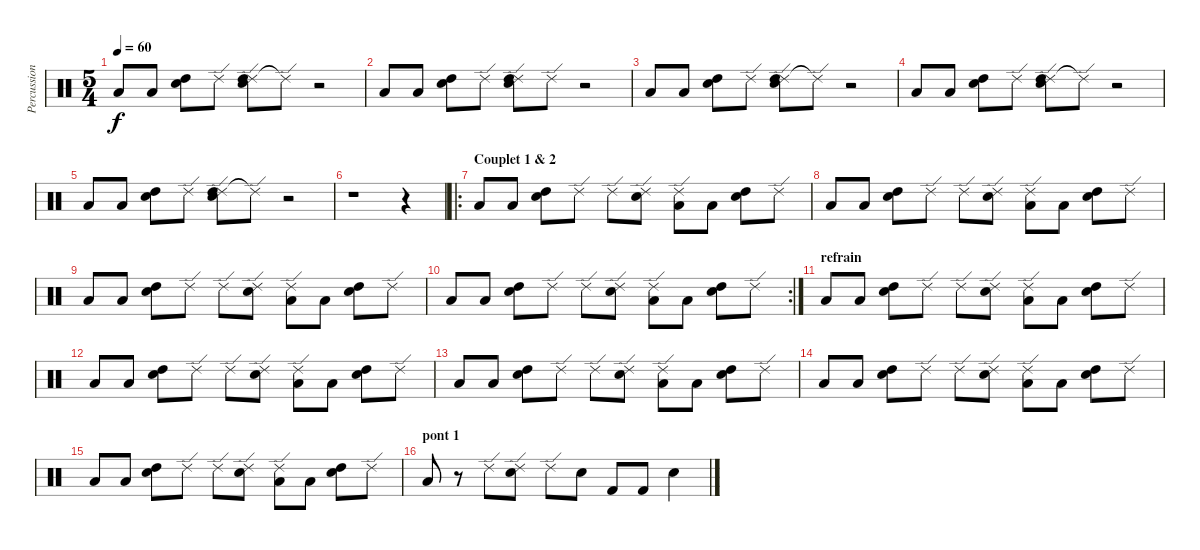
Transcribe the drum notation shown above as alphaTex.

\track ("Percussions" "Percussion") {instrument percussion}
\staff {score}
\articulation defaults
\ts (5 4)
\tempo 60
\clef neutral
\ks c "Low Floor Tom (hit)".8{dy f} "Low Floor Tom (hit)".8
("Electric Snare (hit)" "High Tom (hit)").8 "Ride (edge) 2".8 ("Ride (edge) 2" "Electric Snare (hit)" "High Tom (hit)").8 "Ride (edge) 2"{t}.8 r.2 |
"Low Floor Tom (hit)".8 "Low Floor Tom (hit)".8 ("Electric Snare (hit)" "High Tom (hit)").8 "Ride (edge) 2".8 ("Ride (edge) 2" "Electric Snare (hit)" "High Tom (hit)").8 "Ride (edge) 2".8 r.2 |
"Low Floor Tom (hit)".8 "Low Floor Tom (hit)".8 ("Electric Snare (hit)" "High Tom (hit)").8 "Ride (edge) 2".8 ("Ride (edge) 2" "Electric Snare (hit)" "High Tom (hit)").8 "Ride (edge) 2"{t}.8 r.2 |
"Low Floor Tom (hit)".8 "Low Floor Tom (hit)".8 ("Electric Snare (hit)" "High Tom (hit)").8 "Ride (edge) 2".8 ("Ride (edge) 2" "Electric Snare (hit)" "High Tom (hit)").8 "Ride (edge) 2"{t}.8 r.2 |
"Low Floor Tom (hit)".8 "Low Floor Tom (hit)".8 ("Electric Snare (hit)" "High Tom (hit)").8 "Ride (edge) 2".8 ("Ride (edge) 2" "Electric Snare (hit)" "High Tom (hit)").8 "Ride (edge) 2"{t}.8 r.2 |
r.1 r.4 |
\ro
\section ("" "Couplet 1 & 2")
"Low Floor Tom (hit)".8 "Low Floor Tom (hit)".8 ("Electric Snare (hit)" "High Tom (hit)").8 "Ride (edge) 2".8 "Ride (edge) 2".8 ("Ride (edge) 2" "Electric Snare (hit)").8 ("Ride (edge) 2" "Low Floor Tom (hit)").8 "Low Floor Tom (hit)".8 ("Electric Snare (hit)" "High Tom (hit)").8 "Ride (edge) 2".8 |
"Low Floor Tom (hit)".8 "Low Floor Tom (hit)".8 ("Electric Snare (hit)" "High Tom (hit)").8 "Ride (edge) 2".8 "Ride (edge) 2".8 ("Ride (edge) 2" "Electric Snare (hit)").8 ("Ride (edge) 2" "Low Floor Tom (hit)").8 "Low Floor Tom (hit)".8 ("Electric Snare (hit)" "High Tom (hit)").8 "Ride (edge) 2".8 |
"Low Floor Tom (hit)".8 "Low Floor Tom (hit)".8 ("Electric Snare (hit)" "High Tom (hit)").8 "Ride (edge) 2".8 "Ride (edge) 2".8 ("Ride (edge) 2" "Electric Snare (hit)").8 ("Ride (edge) 2" "Low Floor Tom (hit)").8 "Low Floor Tom (hit)".8 ("Electric Snare (hit)" "High Tom (hit)").8 "Ride (edge) 2".8 |
\rc 2 "Low Floor Tom (hit)".8 "Low Floor Tom (hit)".8
("Electric Snare (hit)" "High Tom (hit)").8 "Ride (edge) 2".8 "Ride (edge) 2".8 ("Ride (edge) 2" "Electric Snare (hit)").8 ("Ride (edge) 2" "Low Floor Tom (hit)").8 "Low Floor Tom (hit)".8 ("Electric Snare (hit)" "High Tom (hit)").8 "Ride (edge) 2".8 |
\section ("" "refrain")
"Low Floor Tom (hit)".8 "Low Floor Tom (hit)".8 ("Electric Snare (hit)" "High Tom (hit)").8 "Ride (edge) 2".8 "Ride (edge) 2".8 ("Ride (edge) 2" "Electric Snare (hit)").8 ("Ride (edge) 2" "Low Floor Tom (hit)").8 "Low Floor Tom (hit)".8 ("Electric Snare (hit)" "High Tom (hit)").8 "Ride (edge) 2".8 |
"Low Floor Tom (hit)".8 "Low Floor Tom (hit)".8 ("Electric Snare (hit)" "High Tom (hit)").8 "Ride (edge) 2".8 "Ride (edge) 2".8 ("Ride (edge) 2" "Electric Snare (hit)").8 ("Ride (edge) 2" "Low Floor Tom (hit)").8 "Low Floor Tom (hit)".8 ("Electric Snare (hit)" "High Tom (hit)").8 "Ride (edge) 2".8 |
"Low Floor Tom (hit)".8 "Low Floor Tom (hit)".8 ("Electric Snare (hit)" "High Tom (hit)").8 "Ride (edge) 2".8 "Ride (edge) 2".8 ("Ride (edge) 2" "Electric Snare (hit)").8 ("Ride (edge) 2" "Low Floor Tom (hit)").8 "Low Floor Tom (hit)".8 ("Electric Snare (hit)" "High Tom (hit)").8 "Ride (edge) 2".8 |
"Low Floor Tom (hit)".8 "Low Floor Tom (hit)".8 ("Electric Snare (hit)" "High Tom (hit)").8 "Ride (edge) 2".8 "Ride (edge) 2".8 ("Ride (edge) 2" "Electric Snare (hit)").8 ("Ride (edge) 2" "Low Floor Tom (hit)").8 "Low Floor Tom (hit)".8 ("Electric Snare (hit)" "High Tom (hit)").8 "Ride (edge) 2".8 |
"Low Floor Tom (hit)".8 "Low Floor Tom (hit)".8 ("Electric Snare (hit)" "High Tom (hit)").8 "Ride (edge) 2".8 "Ride (edge) 2".8 ("Ride (edge) 2" "Electric Snare (hit)").8 ("Ride (edge) 2" "Low Floor Tom (hit)").8 "Low Floor Tom (hit)".8 ("Electric Snare (hit)" "High Tom (hit)").8 "Ride (edge) 2".8 |
\section ("" "pont 1")
"Low Floor Tom (hit)".8 r.8 "Ride (edge) 2".8 ("Ride (edge) 2" "Electric Snare (hit)").8 "Ride (edge) 2".8 "Electric Snare (hit)".8 "Kick (hit) 2".8 "Kick (hit) 2".8 "Electric Snare (hit)".4
